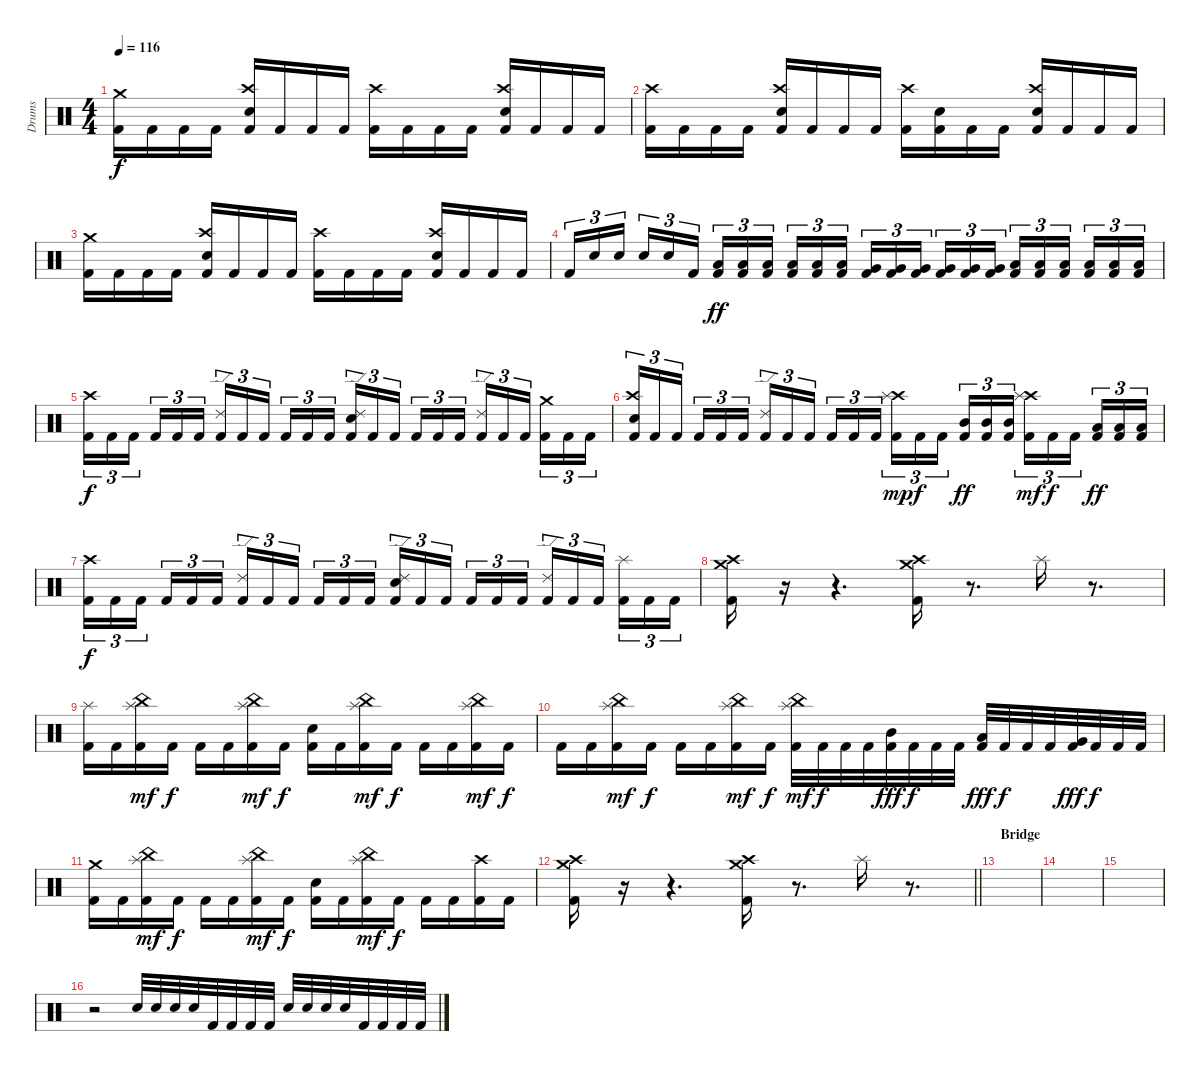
\track ("Drums" "Drums") {instrument percussion}
\staff {score}
\articulation defaults
\ts (4 4)
\tempo 116
\clef neutral
\ks c
("Crash medium (hit)" "Kick (hit) 2").16{dy f} "Kick (hit) 2".16 "Kick (hit) 2".16 "Kick (hit) 2".16 ("Crash high (hit)" "Snare (hit) 2" "Kick (hit) 2").16 "Kick (hit) 2".16 "Kick (hit) 2".16 "Kick (hit) 2".16 ("Crash high (hit)" "Kick (hit) 2").16 "Kick (hit) 2".16 "Kick (hit) 2".16 "Kick (hit) 2".16 ("Crash high (hit)" "Snare (hit) 2" "Kick (hit) 2").16 "Kick (hit) 2".16 "Kick (hit) 2".16 "Kick (hit) 2".16 |
("Crash high (hit)" "Kick (hit) 2").16 "Kick (hit) 2".16 "Kick (hit) 2".16 "Kick (hit) 2".16 ("Crash high (hit)" "Snare (hit) 2" "Kick (hit) 2").16 "Kick (hit) 2".16 "Kick (hit) 2".16 "Kick (hit) 2".16 ("Crash high (hit)" "Kick (hit) 2").16 ("Snare (hit) 2" "Kick (hit) 2").16 "Kick (hit) 2".16 "Kick (hit) 2".16 ("Crash high (hit)" "Snare (hit) 2" "Kick (hit) 2").16 "Kick (hit) 2".16 "Kick (hit) 2".16 "Kick (hit) 2".16 |
("Crash medium (hit)" "Kick (hit) 2").16 "Kick (hit) 2".16 "Kick (hit) 2".16 "Kick (hit) 2".16 ("Crash high (hit)" "Snare (hit) 2" "Kick (hit) 2").16 "Kick (hit) 2".16 "Kick (hit) 2".16 "Kick (hit) 2".16 ("Crash high (hit)" "Kick (hit) 2").16 "Kick (hit) 2".16 "Kick (hit) 2".16 "Kick (hit) 2".16 ("Crash high (hit)" "Snare (hit) 2" "Kick (hit) 2").16 "Kick (hit) 2".16 "Kick (hit) 2".16 "Kick (hit) 2".16 |
"Kick (hit) 2".16{tu (3 2)} "Snare (hit) 2".16{tu (3 2)} "Snare (hit) 2".16{tu (3 2)} "Snare (hit) 2".16{tu (3 2)} "Snare (hit) 2".16{tu (3 2)} "Kick (hit) 2".16{tu (3 2)} ("Low Tom (hit)" "Kick (hit) 2").16{tu (3 2) dy ff} ("Low Tom (hit)" "Kick (hit) 2").16{tu (3 2)} ("Low Tom (hit)" "Kick (hit) 2").16{tu (3 2)} ("Low Tom (hit)" "Kick (hit) 2").16{tu (3 2)} ("Low Tom (hit)" "Kick (hit) 2").16{tu (3 2)} ("Low Tom (hit)" "Kick (hit) 2").16{tu (3 2)} ("Very Low Tom (hit)" "Kick (hit) 2").16{tu (3 2)} ("Very Low Tom (hit)" "Kick (hit) 2").16{tu (3 2)} ("Very Low Tom (hit)" "Kick (hit) 2").16{tu (3 2)} ("Very Low Tom (hit)" "Kick (hit) 2").16{tu (3 2)} ("Very Low Tom (hit)" "Kick (hit) 2").16{tu (3 2)} ("Very Low Tom (hit)" "Kick (hit) 2").16{tu (3 2)} ("Low Floor Tom (hit)" "Kick (hit) 2").16{tu (3 2)} ("Low Floor Tom (hit)" "Kick (hit) 2").16{tu (3 2)} ("Low Floor Tom (hit)" "Kick (hit) 2").16{tu (3 2)} ("Low Floor Tom (hit)" "Kick (hit) 2").16{tu (3 2)} ("Low Floor Tom (hit)" "Kick (hit) 2").16{tu (3 2)} ("Low Floor Tom (hit)" "Kick (hit) 2").16{tu (3 2)} |
("Crash high (hit)" "Kick (hit) 2").16{tu (3 2) dy f} "Kick (hit) 2".16{tu (3 2)} "Kick (hit) 2".16{tu (3 2)} "Kick (hit) 2".16{tu (3 2)} "Kick (hit) 2".16{tu (3 2)} "Kick (hit) 2".16{tu (3 2)} ("Ride (edge) 2" "Kick (hit) 2").16{tu (3 2)} "Kick (hit) 2".16{tu (3 2)} "Kick (hit) 2".16{tu (3 2)} "Kick (hit) 2".16{tu (3 2)} "Kick (hit) 2".16{tu (3 2)} "Kick (hit) 2".16{tu (3 2)} ("Ride (edge) 2" "Snare (hit) 2" "Kick (hit) 2").16{tu (3 2)} "Kick (hit) 2".16{tu (3 2)} "Kick (hit) 2".16{tu (3 2)} "Kick (hit) 2".16{tu (3 2)} "Kick (hit) 2".16{tu (3 2)} "Kick (hit) 2".16{tu (3 2)} ("Ride (edge) 2" "Kick (hit) 2").16{tu (3 2)} "Kick (hit) 2".16{tu (3 2)} "Kick (hit) 2".16{tu (3 2)} ("Crash medium (hit)" "Kick (hit) 2").16{tu (3 2)} "Kick (hit) 2".16{tu (3 2)} "Kick (hit) 2".16{tu (3 2)} |
("Crash high (hit)" "Snare (hit) 2" "Kick (hit) 2").16{tu (3 2)} "Kick (hit) 2".16{tu (3 2)} "Kick (hit) 2".16{tu (3 2)} "Kick (hit) 2".16{tu (3 2)} "Kick (hit) 2".16{tu (3 2)} "Kick (hit) 2".16{tu (3 2)} ("Ride (edge) 2" "Kick (hit) 2").16{tu (3 2)} "Kick (hit) 2".16{tu (3 2)} "Kick (hit) 2".16{tu (3 2)} "Kick (hit) 2".16{tu (3 2)} "Kick (hit) 2".16{tu (3 2)} "Kick (hit) 2".16{tu (3 2)} ("Crash high (hit)" "Splash (hit)" "Kick (hit) 2").16{tu (3 2) dy mp} "Kick (hit) 2".16{tu (3 2) dy f} "Kick (hit) 2".16{tu (3 2)} ("Mid Tom (hit)" "Kick (hit) 2").16{tu (3 2) dy ff} ("Mid Tom (hit)" "Kick (hit) 2").16{tu (3 2)} ("Mid Tom (hit)" "Kick (hit) 2").16{tu (3 2)} ("Crash high (hit)" "Splash (hit)" "Kick (hit) 2").16{tu (3 2) dy mf} "Kick (hit) 2".16{tu (3 2) dy f} "Kick (hit) 2".16{tu (3 2)} ("Low Tom (hit)" "Kick (hit) 2").16{tu (3 2) dy ff} ("Low Tom (hit)" "Kick (hit) 2").16{tu (3 2)} ("Low Tom (hit)" "Kick (hit) 2").16{tu (3 2)} |
("Crash high (hit)" "Kick (hit) 2").16{tu (3 2) dy f} "Kick (hit) 2".16{tu (3 2)} "Kick (hit) 2".16{tu (3 2)} "Kick (hit) 2".16{tu (3 2)} "Kick (hit) 2".16{tu (3 2)} "Kick (hit) 2".16{tu (3 2)} ("Ride (edge) 2" "Kick (hit) 2").16{tu (3 2)} "Kick (hit) 2".16{tu (3 2)} "Kick (hit) 2".16{tu (3 2)} "Kick (hit) 2".16{tu (3 2)} "Kick (hit) 2".16{tu (3 2)} "Kick (hit) 2".16{tu (3 2)} ("Ride (edge) 2" "Snare (hit) 2" "Kick (hit) 2").16{tu (3 2)} "Kick (hit) 2".16{tu (3 2)} "Kick (hit) 2".16{tu (3 2)} "Kick (hit) 2".16{tu (3 2)} "Kick (hit) 2".16{tu (3 2)} "Kick (hit) 2".16{tu (3 2)} ("Ride (edge) 2" "Kick (hit) 2").16{tu (3 2)} "Kick (hit) 2".16{tu (3 2)} "Kick (hit) 2".16{tu (3 2)} ("Splash (hit)" "Kick (hit) 2").16{tu (3 2)} "Kick (hit) 2".16{tu (3 2)} "Kick (hit) 2".16{tu (3 2)} |
("Crash medium (hit)" "Crash high (hit)" "Kick (hit) 2").16 r.16 r.4{d} ("Crash medium (hit)" "Crash high (hit)" "Kick (hit) 2").16 r.8{d} "Splash (hit)".16 r.8{d} |
("Splash (hit)" "Kick (hit) 2").16 "Kick (hit) 2".16 ("Splash (hit)" "China (hit)" "Kick (hit) 2").16{dy mf} "Kick (hit) 2".16{dy f} "Kick (hit) 2".16 "Kick (hit) 2".16 ("Splash (hit)" "China (hit)" "Kick (hit) 2").16{dy mf} "Kick (hit) 2".16{dy f} ("Snare (hit) 2" "Kick (hit) 2").16 "Kick (hit) 2".16 ("Splash (hit)" "China (hit)" "Kick (hit) 2").16{dy mf} "Kick (hit) 2".16{dy f} "Kick (hit) 2".16 "Kick (hit) 2".16 ("Splash (hit)" "China (hit)" "Kick (hit) 2").16{dy mf} "Kick (hit) 2".16{dy f} |
"Kick (hit) 2".16 "Kick (hit) 2".16 ("Splash (hit)" "China (hit)" "Kick (hit) 2").16{dy mf} "Kick (hit) 2".16{dy f} "Kick (hit) 2".16 "Kick (hit) 2".16 ("Splash (hit)" "China (hit)" "Kick (hit) 2").16{dy mf} "Kick (hit) 2".16{dy f} ("Splash (hit)" "China (hit)" "Kick (hit) 2").32{dy mf} "Kick (hit) 2".32{dy f} "Kick (hit) 2".32 "Kick (hit) 2".32 ("Mid Tom (hit)" "Kick (hit) 2").32{dy fff} "Kick (hit) 2".32{dy f} "Kick (hit) 2".32 "Kick (hit) 2".32 ("Low Tom (hit)" "Kick (hit) 2").32{dy fff} "Kick (hit) 2".32{dy f} "Kick (hit) 2".32 "Kick (hit) 2".32 ("Very Low Tom (hit)" "Kick (hit) 2").32{dy fff} "Kick (hit) 2".32{dy f} "Kick (hit) 2".32 "Kick (hit) 2".32 |
("Crash medium (hit)" "Kick (hit) 2").16 "Kick (hit) 2".16 ("Splash (hit)" "China (hit)" "Kick (hit) 2").16{dy mf} "Kick (hit) 2".16{dy f} "Kick (hit) 2".16 "Kick (hit) 2".16 ("Splash (hit)" "China (hit)" "Kick (hit) 2").16{dy mf} "Kick (hit) 2".16{dy f} ("Snare (hit) 2" "Kick (hit) 2").16 "Kick (hit) 2".16 ("Splash (hit)" "China (hit)" "Kick (hit) 2").16{dy mf} "Kick (hit) 2".16{dy f} "Kick (hit) 2".16 "Kick (hit) 2".16 ("Crash high (hit)" "Kick (hit) 2").16 "Kick (hit) 2".16 |
\barLineRight lightlight
("Crash medium (hit)" "Crash high (hit)" "Kick (hit) 2").16 r.16 r.4{d} ("Crash medium (hit)" "Crash high (hit)" "Kick (hit) 2").16 r.8{d} "Splash (hit)".16 r.8{d} |
\section ("" "Bridge")
|
|
|
r.2 "Snare (hit) 2".32 "Snare (hit) 2".32 "Snare (hit) 2".32 "Snare (hit) 2".32 "Kick (hit) 2".32 "Kick (hit) 2".32 "Kick (hit) 2".32 "Kick (hit) 2".32 "Snare (hit) 2".32 "Snare (hit) 2".32 "Snare (hit) 2".32 "Snare (hit) 2".32 "Kick (hit) 2".32 "Kick (hit) 2".32 "Kick (hit) 2".32 "Kick (hit) 2".32
